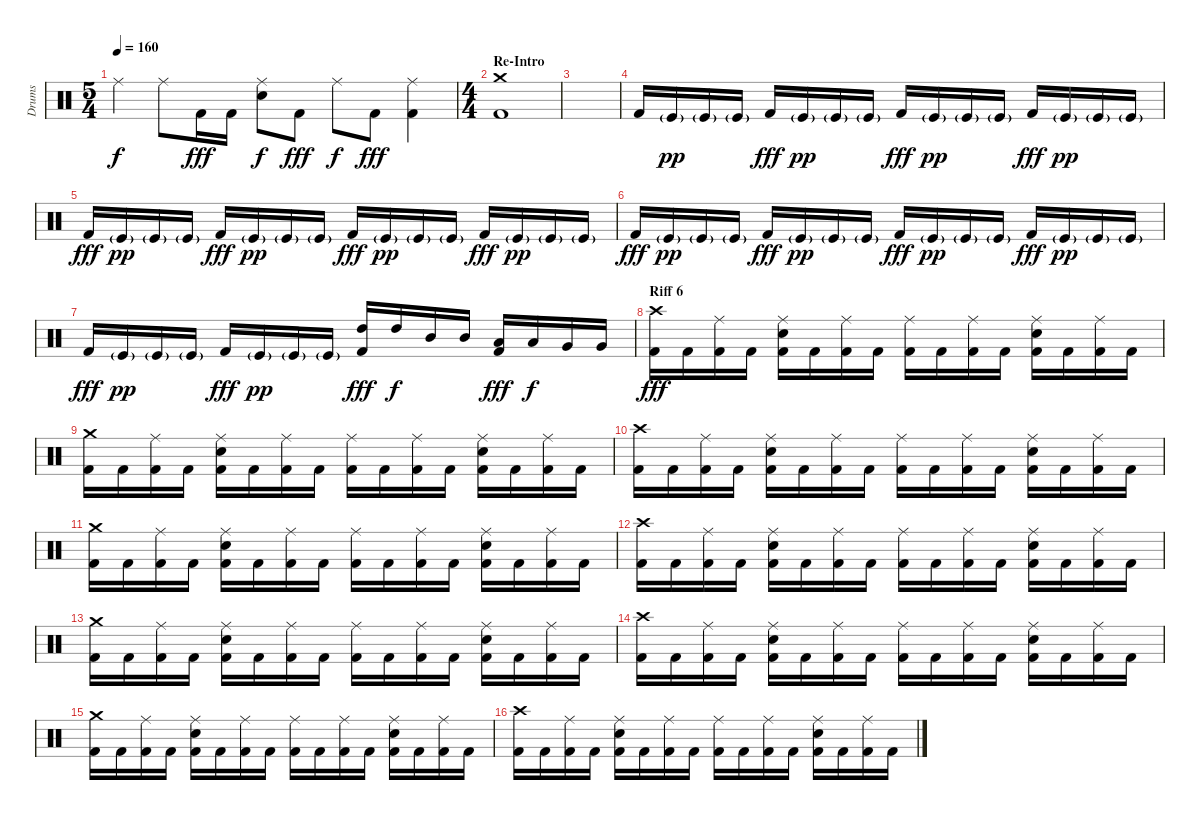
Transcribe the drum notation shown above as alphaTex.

\track ("Drums" "Drums") {instrument percussion}
\staff {score}
\articulation defaults
\ts (5 4)
\tempo 160
\clef neutral
\ks c "Ride (middle)".4{dy f} "Ride (middle)".8 "Kick (hit) 2".16{dy fff} "Kick (hit) 2".16
("Ride (middle)" "Electric Snare (hit)").8{dy f} "Kick (hit) 2".8{dy fff} "Ride (middle)".8{dy f} "Kick (hit) 2".8{dy fff} ("Ride (middle)" "Kick (hit) 2").4 |
\ts (4 4)
\section ("" "Re-Intro")
("Crash medium (hit)" "Kick (hit) 2").1 |
|
"Kick (hit) 2".16 "Kick (hit)"{g}.16{dy pp} "Kick (hit)"{g}.16 "Kick (hit)"{g}.16 "Kick (hit) 2".16{dy fff} "Kick (hit)"{g}.16{dy pp} "Kick (hit)"{g}.16 "Kick (hit)"{g}.16 "Kick (hit) 2".16{dy fff} "Kick (hit)"{g}.16{dy pp} "Kick (hit)"{g}.16 "Kick (hit)"{g}.16 "Kick (hit) 2".16{dy fff} "Kick (hit)"{g}.16{dy pp} "Kick (hit)"{g}.16 "Kick (hit)"{g}.16 |
"Kick (hit) 2".16{dy fff} "Kick (hit)"{g}.16{dy pp} "Kick (hit)"{g}.16 "Kick (hit)"{g}.16 "Kick (hit) 2".16{dy fff} "Kick (hit)"{g}.16{dy pp} "Kick (hit)"{g}.16 "Kick (hit)"{g}.16 "Kick (hit) 2".16{dy fff} "Kick (hit)"{g}.16{dy pp} "Kick (hit)"{g}.16 "Kick (hit)"{g}.16 "Kick (hit) 2".16{dy fff} "Kick (hit)"{g}.16{dy pp} "Kick (hit)"{g}.16 "Kick (hit)"{g}.16 |
"Kick (hit) 2".16{dy fff} "Kick (hit)"{g}.16{dy pp} "Kick (hit)"{g}.16 "Kick (hit)"{g}.16 "Kick (hit) 2".16{dy fff} "Kick (hit)"{g}.16{dy pp} "Kick (hit)"{g}.16 "Kick (hit)"{g}.16 "Kick (hit) 2".16{dy fff} "Kick (hit)"{g}.16{dy pp} "Kick (hit)"{g}.16 "Kick (hit)"{g}.16 "Kick (hit) 2".16{dy fff} "Kick (hit)"{g}.16{dy pp} "Kick (hit)"{g}.16 "Kick (hit)"{g}.16 |
"Kick (hit) 2".16{dy fff} "Kick (hit)"{g}.16{dy pp} "Kick (hit)"{g}.16 "Kick (hit)"{g}.16 "Kick (hit) 2".16{dy fff} "Kick (hit)"{g}.16{dy pp} "Kick (hit)"{g}.16 "Kick (hit)"{g}.16 ("High Tom (hit)" "Kick (hit) 2").16{dy fff} "High Tom (hit)".16{dy f} "Mid Tom (hit)".16 "Mid Tom (hit)".16 ("Low Tom (hit)" "Kick (hit) 2").16{dy fff} "Low Tom (hit)".16{dy f} "Very Low Tom (hit)".16 "Very Low Tom (hit)".16 |
\section ("" "Riff 6")
("Crash high (hit)" "Kick (hit) 2").16{dy fff} "Kick (hit) 2".16 ("Ride (middle)" "Kick (hit) 2").16 "Kick (hit) 2".16 ("Ride (middle)" "Electric Snare (hit)" "Kick (hit) 2").16 "Kick (hit) 2".16 ("Ride (middle)" "Kick (hit) 2").16 "Kick (hit) 2".16 ("Ride (middle)" "Kick (hit) 2").16 "Kick (hit) 2".16 ("Ride (middle)" "Kick (hit) 2").16 "Kick (hit) 2".16 ("Ride (middle)" "Electric Snare (hit)" "Kick (hit) 2").16 "Kick (hit) 2".16 ("Ride (middle)" "Kick (hit) 2").16 "Kick (hit) 2".16 |
("Crash medium (hit)" "Kick (hit) 2").16 "Kick (hit) 2".16 ("Ride (middle)" "Kick (hit) 2").16 "Kick (hit) 2".16 ("Ride (middle)" "Electric Snare (hit)" "Kick (hit) 2").16 "Kick (hit) 2".16 ("Ride (middle)" "Kick (hit) 2").16 "Kick (hit) 2".16 ("Ride (middle)" "Kick (hit) 2").16 "Kick (hit) 2".16 ("Ride (middle)" "Kick (hit) 2").16 "Kick (hit) 2".16 ("Ride (middle)" "Electric Snare (hit)" "Kick (hit) 2").16 "Kick (hit) 2".16 ("Ride (middle)" "Kick (hit) 2").16 "Kick (hit) 2".16 |
("Crash high (hit)" "Kick (hit) 2").16 "Kick (hit) 2".16 ("Ride (middle)" "Kick (hit) 2").16 "Kick (hit) 2".16 ("Ride (middle)" "Electric Snare (hit)" "Kick (hit) 2").16 "Kick (hit) 2".16 ("Ride (middle)" "Kick (hit) 2").16 "Kick (hit) 2".16 ("Ride (middle)" "Kick (hit) 2").16 "Kick (hit) 2".16 ("Ride (middle)" "Kick (hit) 2").16 "Kick (hit) 2".16 ("Ride (middle)" "Electric Snare (hit)" "Kick (hit) 2").16 "Kick (hit) 2".16 ("Ride (middle)" "Kick (hit) 2").16 "Kick (hit) 2".16 |
("Crash medium (hit)" "Kick (hit) 2").16 "Kick (hit) 2".16 ("Ride (middle)" "Kick (hit) 2").16 "Kick (hit) 2".16 ("Ride (middle)" "Electric Snare (hit)" "Kick (hit) 2").16 "Kick (hit) 2".16 ("Ride (middle)" "Kick (hit) 2").16 "Kick (hit) 2".16 ("Ride (middle)" "Kick (hit) 2").16 "Kick (hit) 2".16 ("Ride (middle)" "Kick (hit) 2").16 "Kick (hit) 2".16 ("Ride (middle)" "Electric Snare (hit)" "Kick (hit) 2").16 "Kick (hit) 2".16 ("Ride (middle)" "Kick (hit) 2").16 "Kick (hit) 2".16 |
("Crash high (hit)" "Kick (hit) 2").16 "Kick (hit) 2".16 ("Ride (middle)" "Kick (hit) 2").16 "Kick (hit) 2".16 ("Ride (middle)" "Electric Snare (hit)" "Kick (hit) 2").16 "Kick (hit) 2".16 ("Ride (middle)" "Kick (hit) 2").16 "Kick (hit) 2".16 ("Ride (middle)" "Kick (hit) 2").16 "Kick (hit) 2".16 ("Ride (middle)" "Kick (hit) 2").16 "Kick (hit) 2".16 ("Ride (middle)" "Electric Snare (hit)" "Kick (hit) 2").16 "Kick (hit) 2".16 ("Ride (middle)" "Kick (hit) 2").16 "Kick (hit) 2".16 |
("Crash medium (hit)" "Kick (hit) 2").16 "Kick (hit) 2".16 ("Ride (middle)" "Kick (hit) 2").16 "Kick (hit) 2".16 ("Ride (middle)" "Electric Snare (hit)" "Kick (hit) 2").16 "Kick (hit) 2".16 ("Ride (middle)" "Kick (hit) 2").16 "Kick (hit) 2".16 ("Ride (middle)" "Kick (hit) 2").16 "Kick (hit) 2".16 ("Ride (middle)" "Kick (hit) 2").16 "Kick (hit) 2".16 ("Ride (middle)" "Electric Snare (hit)" "Kick (hit) 2").16 "Kick (hit) 2".16 ("Ride (middle)" "Kick (hit) 2").16 "Kick (hit) 2".16 |
("Crash high (hit)" "Kick (hit) 2").16 "Kick (hit) 2".16 ("Ride (middle)" "Kick (hit) 2").16 "Kick (hit) 2".16 ("Ride (middle)" "Electric Snare (hit)" "Kick (hit) 2").16 "Kick (hit) 2".16 ("Ride (middle)" "Kick (hit) 2").16 "Kick (hit) 2".16 ("Ride (middle)" "Kick (hit) 2").16 "Kick (hit) 2".16 ("Ride (middle)" "Kick (hit) 2").16 "Kick (hit) 2".16 ("Ride (middle)" "Electric Snare (hit)" "Kick (hit) 2").16 "Kick (hit) 2".16 ("Ride (middle)" "Kick (hit) 2").16 "Kick (hit) 2".16 |
("Crash medium (hit)" "Kick (hit) 2").16 "Kick (hit) 2".16 ("Ride (middle)" "Kick (hit) 2").16 "Kick (hit) 2".16 ("Ride (middle)" "Electric Snare (hit)" "Kick (hit) 2").16 "Kick (hit) 2".16 ("Ride (middle)" "Kick (hit) 2").16 "Kick (hit) 2".16 ("Ride (middle)" "Kick (hit) 2").16 "Kick (hit) 2".16 ("Ride (middle)" "Kick (hit) 2").16 "Kick (hit) 2".16 ("Ride (middle)" "Electric Snare (hit)" "Kick (hit) 2").16 "Kick (hit) 2".16 ("Ride (middle)" "Kick (hit) 2").16 "Kick (hit) 2".16 |
("Crash high (hit)" "Kick (hit) 2").16 "Kick (hit) 2".16 ("Ride (middle)" "Kick (hit) 2").16 "Kick (hit) 2".16 ("Ride (middle)" "Electric Snare (hit)" "Kick (hit) 2").16 "Kick (hit) 2".16 ("Ride (middle)" "Kick (hit) 2").16 "Kick (hit) 2".16 ("Ride (middle)" "Kick (hit) 2").16 "Kick (hit) 2".16 ("Ride (middle)" "Kick (hit) 2").16 "Kick (hit) 2".16 ("Ride (middle)" "Electric Snare (hit)" "Kick (hit) 2").16 "Kick (hit) 2".16 ("Ride (middle)" "Kick (hit) 2").16 "Kick (hit) 2".16
